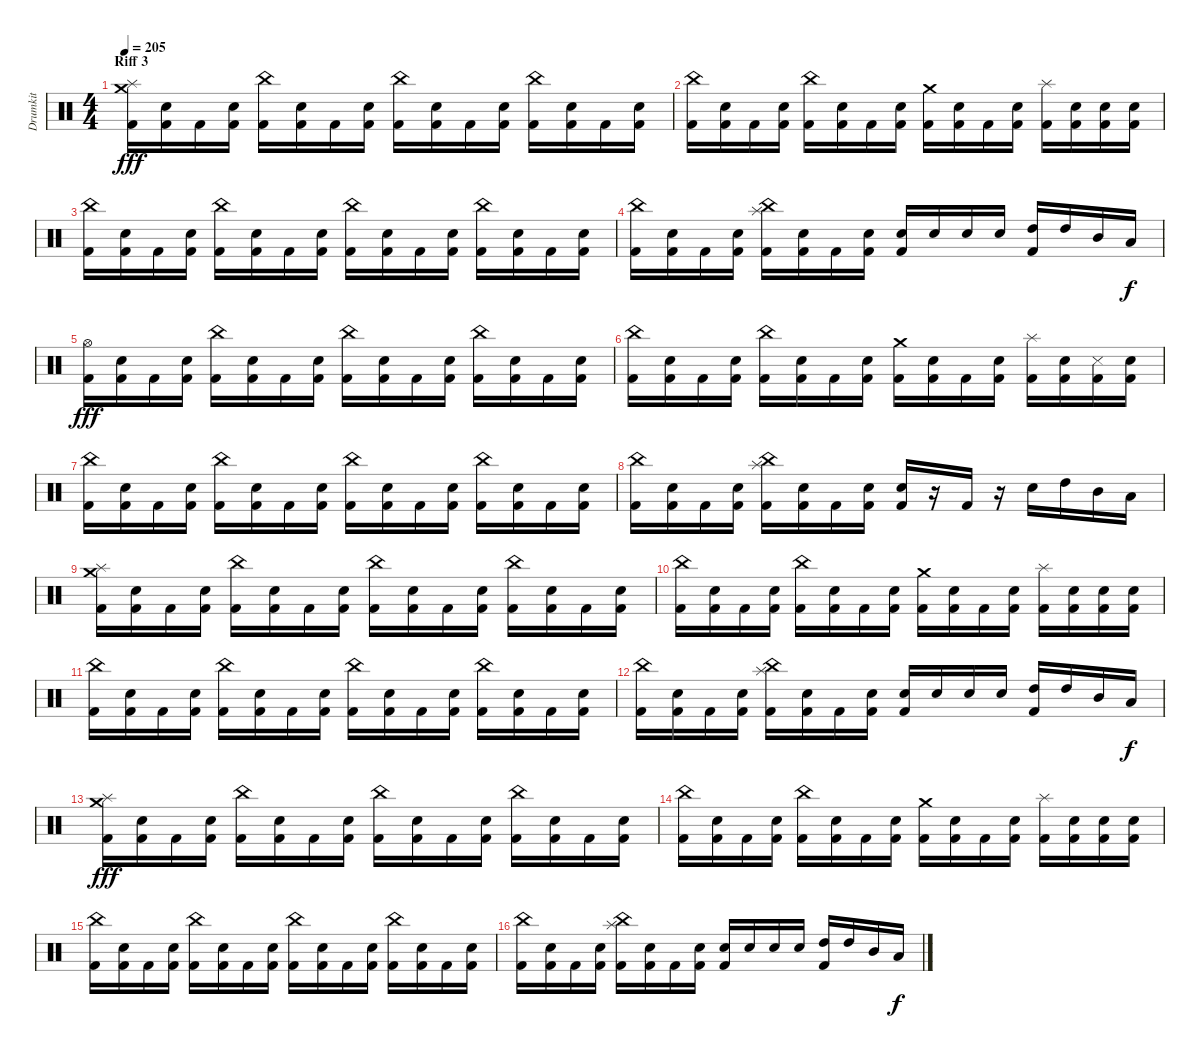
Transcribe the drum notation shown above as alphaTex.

\track ("Drumkit" "Drumkit") {instrument percussion}
\staff {score}
\articulation defaults
\ts (4 4)
\section ("" "Riff 3")
\tempo 205
\clef neutral
\ks c
("Kick (hit) 2" "Splash (hit)" "Crash medium (hit)").16{dy fff} ("Kick (hit) 2" "Snare (hit) 2").16 "Kick (hit) 2".16 ("Kick (hit) 2" "Snare (hit) 2").16 ("Kick (hit) 2" "China (hit)").16 ("Kick (hit) 2" "Snare (hit) 2").16 "Kick (hit) 2".16 ("Kick (hit) 2" "Snare (hit) 2").16 ("Kick (hit) 2" "China (hit)").16 ("Kick (hit) 2" "Snare (hit) 2").16 "Kick (hit) 2".16 ("Kick (hit) 2" "Snare (hit) 2").16 ("Kick (hit) 2" "China (hit)").16 ("Kick (hit) 2" "Snare (hit) 2").16 "Kick (hit) 2".16 ("Kick (hit) 2" "Snare (hit) 2").16 |
("Kick (hit) 2" "China (hit)").16 ("Kick (hit) 2" "Snare (hit) 2").16 "Kick (hit) 2".16 ("Kick (hit) 2" "Snare (hit) 2").16 ("Kick (hit) 2" "China (hit)").16 ("Kick (hit) 2" "Snare (hit) 2").16 "Kick (hit) 2".16 ("Kick (hit) 2" "Snare (hit) 2").16 ("Kick (hit) 2" "Crash medium (hit)").16 ("Kick (hit) 2" "Snare (hit) 2").16 "Kick (hit) 2".16 ("Kick (hit) 2" "Snare (hit) 2").16 ("Kick (hit) 2" "Splash (hit)").16 ("Kick (hit) 2" "Snare (hit) 2").16 ("Kick (hit) 2" "Snare (hit) 2").16 ("Kick (hit) 2" "Snare (hit) 2").16 |
("Kick (hit) 2" "China (hit)").16 ("Kick (hit) 2" "Snare (hit) 2").16 "Kick (hit) 2".16 ("Kick (hit) 2" "Snare (hit) 2").16 ("Kick (hit) 2" "China (hit)").16 ("Kick (hit) 2" "Snare (hit) 2").16 "Kick (hit) 2".16 ("Kick (hit) 2" "Snare (hit) 2").16 ("Kick (hit) 2" "China (hit)").16 ("Kick (hit) 2" "Snare (hit) 2").16 "Kick (hit) 2".16 ("Kick (hit) 2" "Snare (hit) 2").16 ("Kick (hit) 2" "China (hit)").16 ("Kick (hit) 2" "Snare (hit) 2").16 "Kick (hit) 2".16 ("Kick (hit) 2" "Snare (hit) 2").16 |
("Kick (hit) 2" "China (hit)").16 ("Kick (hit) 2" "Snare (hit) 2").16 "Kick (hit) 2".16 ("Kick (hit) 2" "Snare (hit) 2").16 ("Kick (hit) 2" "Splash (hit)" "China (hit)").16 ("Kick (hit) 2" "Snare (hit) 2").16 "Kick (hit) 2".16 ("Kick (hit) 2" "Snare (hit) 2").16 ("Kick (hit) 2" "Snare (hit) 2").16 "Snare (hit) 2".16 "Snare (hit) 2".16 "Snare (hit) 2".16 ("Kick (hit) 2" "High Tom (hit)").16 "High Tom (hit)".16 "Mid Tom (hit)".16 "Low Tom (hit)".16{dy f} |
("Kick (hit) 2" "Hi-Hat (open)").16{dy fff} ("Kick (hit) 2" "Snare (hit) 2").16 "Kick (hit) 2".16 ("Kick (hit) 2" "Snare (hit) 2").16 ("Kick (hit) 2" "China (hit)").16 ("Kick (hit) 2" "Snare (hit) 2").16 "Kick (hit) 2".16 ("Kick (hit) 2" "Snare (hit) 2").16 ("Kick (hit) 2" "China (hit)").16 ("Kick (hit) 2" "Snare (hit) 2").16 "Kick (hit) 2".16 ("Kick (hit) 2" "Snare (hit) 2").16 ("Kick (hit) 2" "China (hit)").16 ("Kick (hit) 2" "Snare (hit) 2").16 "Kick (hit) 2".16 ("Kick (hit) 2" "Snare (hit) 2").16 |
("Kick (hit) 2" "China (hit)").16 ("Kick (hit) 2" "Snare (hit) 2").16 "Kick (hit) 2".16 ("Kick (hit) 2" "Snare (hit) 2").16 ("Kick (hit) 2" "China (hit)").16 ("Kick (hit) 2" "Snare (hit) 2").16 "Kick (hit) 2".16 ("Kick (hit) 2" "Snare (hit) 2").16 ("Kick (hit) 2" "Crash medium (hit)").16 ("Kick (hit) 2" "Snare (hit) 2").16 "Kick (hit) 2".16 ("Kick (hit) 2" "Snare (hit) 2").16 ("Kick (hit) 2" "Splash (hit)").16 ("Kick (hit) 2" "Snare (hit) 2").16 ("Kick (hit) 2" "Snare (side stick) 3").16 ("Kick (hit) 2" "Snare (hit) 2").16 |
("Kick (hit) 2" "China (hit)").16 ("Kick (hit) 2" "Snare (hit) 2").16 "Kick (hit) 2".16 ("Kick (hit) 2" "Snare (hit) 2").16 ("Kick (hit) 2" "China (hit)").16 ("Kick (hit) 2" "Snare (hit) 2").16 "Kick (hit) 2".16 ("Kick (hit) 2" "Snare (hit) 2").16 ("Kick (hit) 2" "China (hit)").16 ("Kick (hit) 2" "Snare (hit) 2").16 "Kick (hit) 2".16 ("Kick (hit) 2" "Snare (hit) 2").16 ("Kick (hit) 2" "China (hit)").16 ("Kick (hit) 2" "Snare (hit) 2").16 "Kick (hit) 2".16 ("Kick (hit) 2" "Snare (hit) 2").16 |
("Kick (hit) 2" "China (hit)").16 ("Kick (hit) 2" "Snare (hit) 2").16 "Kick (hit) 2".16 ("Kick (hit) 2" "Snare (hit) 2").16 ("Kick (hit) 2" "Splash (hit)" "China (hit)").16 ("Kick (hit) 2" "Snare (hit) 2").16 "Kick (hit) 2".16 ("Kick (hit) 2" "Snare (hit) 2").16 ("Kick (hit) 2" "Snare (hit) 2").16 r.16 "Kick (hit) 2".16 r.16 "Snare (hit) 2".16 "High Tom (hit)".16 "Mid Tom (hit)".16 "Low Tom (hit)".16 |
("Kick (hit) 2" "Splash (hit)" "Crash medium (hit)").16 ("Kick (hit) 2" "Snare (hit) 2").16 "Kick (hit) 2".16 ("Kick (hit) 2" "Snare (hit) 2").16 ("Kick (hit) 2" "China (hit)").16 ("Kick (hit) 2" "Snare (hit) 2").16 "Kick (hit) 2".16 ("Kick (hit) 2" "Snare (hit) 2").16 ("Kick (hit) 2" "China (hit)").16 ("Kick (hit) 2" "Snare (hit) 2").16 "Kick (hit) 2".16 ("Kick (hit) 2" "Snare (hit) 2").16 ("Kick (hit) 2" "China (hit)").16 ("Kick (hit) 2" "Snare (hit) 2").16 "Kick (hit) 2".16 ("Kick (hit) 2" "Snare (hit) 2").16 |
("Kick (hit) 2" "China (hit)").16 ("Kick (hit) 2" "Snare (hit) 2").16 "Kick (hit) 2".16 ("Kick (hit) 2" "Snare (hit) 2").16 ("Kick (hit) 2" "China (hit)").16 ("Kick (hit) 2" "Snare (hit) 2").16 "Kick (hit) 2".16 ("Kick (hit) 2" "Snare (hit) 2").16 ("Kick (hit) 2" "Crash medium (hit)").16 ("Kick (hit) 2" "Snare (hit) 2").16 "Kick (hit) 2".16 ("Kick (hit) 2" "Snare (hit) 2").16 ("Kick (hit) 2" "Splash (hit)").16 ("Kick (hit) 2" "Snare (hit) 2").16 ("Kick (hit) 2" "Snare (hit) 2").16 ("Kick (hit) 2" "Snare (hit) 2").16 |
("Kick (hit) 2" "China (hit)").16 ("Kick (hit) 2" "Snare (hit) 2").16 "Kick (hit) 2".16 ("Kick (hit) 2" "Snare (hit) 2").16 ("Kick (hit) 2" "China (hit)").16 ("Kick (hit) 2" "Snare (hit) 2").16 "Kick (hit) 2".16 ("Kick (hit) 2" "Snare (hit) 2").16 ("Kick (hit) 2" "China (hit)").16 ("Kick (hit) 2" "Snare (hit) 2").16 "Kick (hit) 2".16 ("Kick (hit) 2" "Snare (hit) 2").16 ("Kick (hit) 2" "China (hit)").16 ("Kick (hit) 2" "Snare (hit) 2").16 "Kick (hit) 2".16 ("Kick (hit) 2" "Snare (hit) 2").16 |
("Kick (hit) 2" "China (hit)").16 ("Kick (hit) 2" "Snare (hit) 2").16 "Kick (hit) 2".16 ("Kick (hit) 2" "Snare (hit) 2").16 ("Kick (hit) 2" "Splash (hit)" "China (hit)").16 ("Kick (hit) 2" "Snare (hit) 2").16 "Kick (hit) 2".16 ("Kick (hit) 2" "Snare (hit) 2").16 ("Kick (hit) 2" "Snare (hit) 2").16 "Snare (hit) 2".16 "Snare (hit) 2".16 "Snare (hit) 2".16 ("Kick (hit) 2" "High Tom (hit)").16 "High Tom (hit)".16 "Mid Tom (hit)".16 "Low Tom (hit)".16{dy f} |
("Kick (hit) 2" "Splash (hit)" "Crash medium (hit)").16{dy fff} ("Kick (hit) 2" "Snare (hit) 2").16 "Kick (hit) 2".16 ("Kick (hit) 2" "Snare (hit) 2").16 ("Kick (hit) 2" "China (hit)").16 ("Kick (hit) 2" "Snare (hit) 2").16 "Kick (hit) 2".16 ("Kick (hit) 2" "Snare (hit) 2").16 ("Kick (hit) 2" "China (hit)").16 ("Kick (hit) 2" "Snare (hit) 2").16 "Kick (hit) 2".16 ("Kick (hit) 2" "Snare (hit) 2").16 ("Kick (hit) 2" "China (hit)").16 ("Kick (hit) 2" "Snare (hit) 2").16 "Kick (hit) 2".16 ("Kick (hit) 2" "Snare (hit) 2").16 |
("Kick (hit) 2" "China (hit)").16 ("Kick (hit) 2" "Snare (hit) 2").16 "Kick (hit) 2".16 ("Kick (hit) 2" "Snare (hit) 2").16 ("Kick (hit) 2" "China (hit)").16 ("Kick (hit) 2" "Snare (hit) 2").16 "Kick (hit) 2".16 ("Kick (hit) 2" "Snare (hit) 2").16 ("Kick (hit) 2" "Crash medium (hit)").16 ("Kick (hit) 2" "Snare (hit) 2").16 "Kick (hit) 2".16 ("Kick (hit) 2" "Snare (hit) 2").16 ("Kick (hit) 2" "Splash (hit)").16 ("Kick (hit) 2" "Snare (hit) 2").16 ("Kick (hit) 2" "Snare (hit) 2").16 ("Kick (hit) 2" "Snare (hit) 2").16 |
("Kick (hit) 2" "China (hit)").16 ("Kick (hit) 2" "Snare (hit) 2").16 "Kick (hit) 2".16 ("Kick (hit) 2" "Snare (hit) 2").16 ("Kick (hit) 2" "China (hit)").16 ("Kick (hit) 2" "Snare (hit) 2").16 "Kick (hit) 2".16 ("Kick (hit) 2" "Snare (hit) 2").16 ("Kick (hit) 2" "China (hit)").16 ("Kick (hit) 2" "Snare (hit) 2").16 "Kick (hit) 2".16 ("Kick (hit) 2" "Snare (hit) 2").16 ("Kick (hit) 2" "China (hit)").16 ("Kick (hit) 2" "Snare (hit) 2").16 "Kick (hit) 2".16 ("Kick (hit) 2" "Snare (hit) 2").16 |
("Kick (hit) 2" "China (hit)").16 ("Kick (hit) 2" "Snare (hit) 2").16 "Kick (hit) 2".16 ("Kick (hit) 2" "Snare (hit) 2").16 ("Kick (hit) 2" "Splash (hit)" "China (hit)").16 ("Kick (hit) 2" "Snare (hit) 2").16 "Kick (hit) 2".16 ("Kick (hit) 2" "Snare (hit) 2").16 ("Kick (hit) 2" "Snare (hit) 2").16 "Snare (hit) 2".16 "Snare (hit) 2".16 "Snare (hit) 2".16 ("Kick (hit) 2" "High Tom (hit)").16 "High Tom (hit)".16 "Mid Tom (hit)".16 "Low Tom (hit)".16{dy f}
